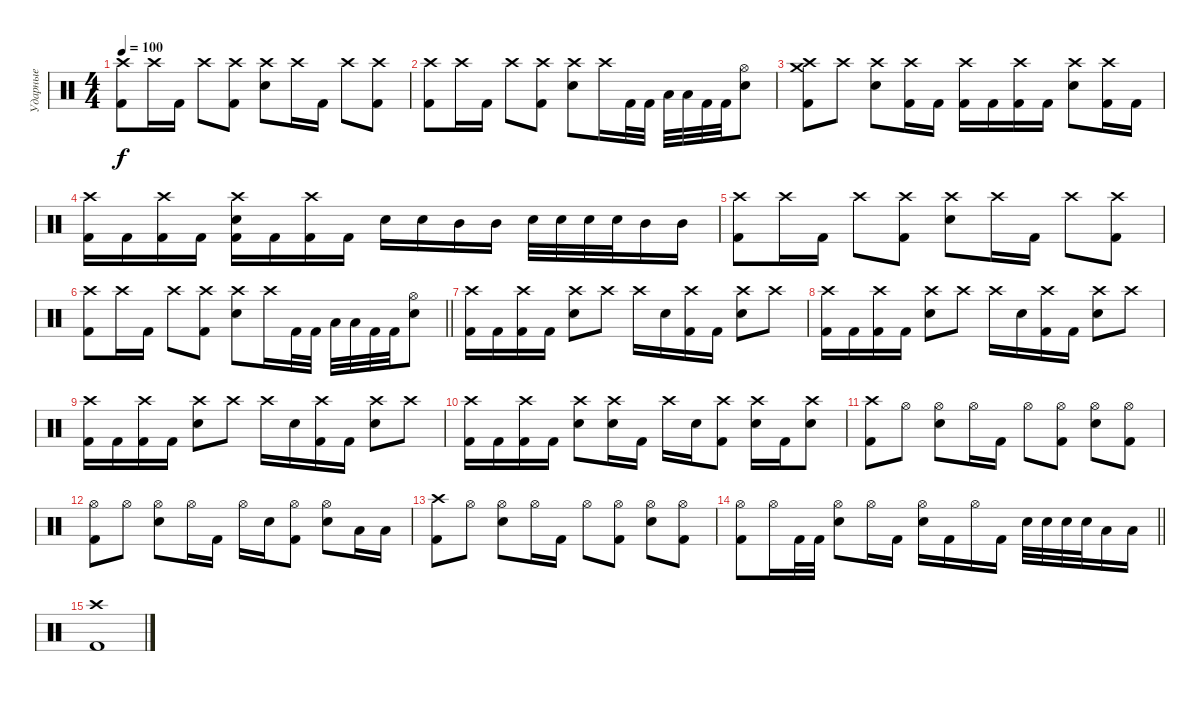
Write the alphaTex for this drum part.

\track ("Ударные" "Ударные") {instrument percussion}
\staff {score}
\articulation defaults
\ts (4 4)
\tempo 100
\clef neutral
\ks c
("Crash high (hit)" "Kick (hit) 2").8{dy f} "Crash high (hit)".16 "Kick (hit) 2".16 "Crash high (hit)".8 ("Crash high (hit)" "Kick (hit) 2").8 ("Crash high (hit)" "Snare (hit) 2").8 "Crash high (hit)".16 "Kick (hit) 2".16 "Crash high (hit)".8 ("Kick (hit) 2" "Crash high (hit)").8 |
("Crash high (hit)" "Kick (hit) 2").8 "Crash high (hit)".16 "Kick (hit) 2".16 "Crash high (hit)".8 ("Crash high (hit)" "Kick (hit) 2").8 ("Crash high (hit)" "Snare (hit) 2").8 "Crash high (hit)".16 "Kick (hit) 2".32 "Kick (hit) 2".32 "Low Tom (hit)".32 "Low Floor Tom (hit)".32 "Kick (hit) 2".32 "Kick (hit) 2".32 ("Hi-Hat (open)" "Snare (hit) 2").8 |
("Kick (hit) 2" "Crash high (hit)" "Crash medium (hit)").8 "Crash high (hit)".8 ("Crash high (hit)" "Snare (hit) 2").8 ("Crash high (hit)" "Kick (hit) 2").16 "Kick (hit) 2".16 ("Kick (hit) 2" "Crash high (hit)").16 "Kick (hit) 2".16 ("Kick (hit) 2" "Crash high (hit)").16 "Kick (hit) 2".16 ("Snare (hit) 2" "Crash high (hit)").8 ("Crash high (hit)" "Kick (hit) 2").16 "Kick (hit) 2".16 |
("Kick (hit) 2" "Crash high (hit)").16 "Kick (hit) 2".16 ("Kick (hit) 2" "Crash high (hit)").16 "Kick (hit) 2".16 ("Crash high (hit)" "Snare (hit) 2" "Kick (hit) 2").16 "Kick (hit) 2".16 ("Kick (hit) 2" "Crash high (hit)").16 "Kick (hit) 2".16 "Snare (hit) 2".16 "Snare (hit) 2".16 "Mid Tom (hit)".16 "Mid Tom (hit)".16 "Snare (hit) 2".32 "Snare (hit) 2".32 "Snare (hit) 2".32 "Snare (hit) 2".32 "Mid Tom (hit)".16 "Mid Tom (hit)".16 |
("Crash high (hit)" "Kick (hit) 2").8 "Crash high (hit)".16 "Kick (hit) 2".16 "Crash high (hit)".8 ("Crash high (hit)" "Kick (hit) 2").8 ("Crash high (hit)" "Snare (hit) 2").8 "Crash high (hit)".16 "Kick (hit) 2".16 "Crash high (hit)".8 ("Kick (hit) 2" "Crash high (hit)").8 |
\barLineRight lightlight
("Crash high (hit)" "Kick (hit) 2").8 "Crash high (hit)".16 "Kick (hit) 2".16 "Crash high (hit)".8 ("Crash high (hit)" "Kick (hit) 2").8 ("Crash high (hit)" "Snare (hit) 2").8 "Crash high (hit)".16 "Kick (hit) 2".32 "Kick (hit) 2".32 "Low Tom (hit)".32 "Low Floor Tom (hit)".32 "Kick (hit) 2".32 "Kick (hit) 2".32 ("Hi-Hat (open)" "Snare (hit) 2").8 |
("Crash high (hit)" "Kick (hit) 2").16 "Kick (hit) 2".16 ("Crash high (hit)" "Kick (hit) 2").16 "Kick (hit) 2".16 ("Crash high (hit)" "Snare (hit) 2").8 "Crash high (hit)".8 "Crash high (hit)".16 "Snare (hit) 2".16 ("Crash high (hit)" "Kick (hit) 2").16 "Kick (hit) 2".16 ("Crash high (hit)" "Snare (hit) 2").8 "Crash high (hit)".8 |
("Crash high (hit)" "Kick (hit) 2").16 "Kick (hit) 2".16 ("Crash high (hit)" "Kick (hit) 2").16 "Kick (hit) 2".16 ("Crash high (hit)" "Snare (hit) 2").8 "Crash high (hit)".8 "Crash high (hit)".16 "Snare (hit) 2".16 ("Crash high (hit)" "Kick (hit) 2").16 "Kick (hit) 2".16 ("Crash high (hit)" "Snare (hit) 2").8 "Crash high (hit)".8 |
("Crash high (hit)" "Kick (hit) 2").16 "Kick (hit) 2".16 ("Crash high (hit)" "Kick (hit) 2").16 "Kick (hit) 2".16 ("Crash high (hit)" "Snare (hit) 2").8 "Crash high (hit)".8 "Crash high (hit)".16 "Snare (hit) 2".16 ("Crash high (hit)" "Kick (hit) 2").16 "Kick (hit) 2".16 ("Crash high (hit)" "Snare (hit) 2").8 "Crash high (hit)".8 |
("Crash high (hit)" "Kick (hit) 2").16 "Kick (hit) 2".16 ("Crash high (hit)" "Kick (hit) 2").16 "Kick (hit) 2".16 ("Crash high (hit)" "Snare (hit) 2").8 ("Snare (hit) 2" "Crash high (hit)").16 "Kick (hit) 2".16 "Crash high (hit)".16 "Snare (hit) 2".16 ("Crash high (hit)" "Kick (hit) 2").8 ("Crash high (hit)" "Snare (hit) 2").16 "Kick (hit) 2".16 ("Crash high (hit)" "Snare (hit) 2").8 |
("Crash high (hit)" "Kick (hit) 2").8 "Hi-Hat (open)".8 ("Hi-Hat (open)" "Snare (hit) 2").8 "Hi-Hat (open)".16 "Kick (hit) 2".16 "Hi-Hat (open)".8 ("Hi-Hat (open)" "Kick (hit) 2").8 ("Hi-Hat (open)" "Snare (hit) 2").8 ("Kick (hit) 2" "Hi-Hat (open)").8 |
("Hi-Hat (open)" "Kick (hit) 2").8 "Hi-Hat (open)".8 ("Hi-Hat (open)" "Snare (hit) 2").8 "Hi-Hat (open)".16 "Kick (hit) 2".16 "Hi-Hat (open)".16 "Snare (hit) 2".16 ("Hi-Hat (open)" "Kick (hit) 2").8 ("Hi-Hat (open)" "Snare (hit) 2").8 "Low Tom (hit)".16 "Low Floor Tom (hit)".16 |
("Crash high (hit)" "Kick (hit) 2").8 "Hi-Hat (open)".8 ("Hi-Hat (open)" "Snare (hit) 2").8 "Hi-Hat (open)".16 "Kick (hit) 2".16 "Hi-Hat (open)".8 ("Hi-Hat (open)" "Kick (hit) 2").8 ("Hi-Hat (open)" "Snare (hit) 2").8 ("Kick (hit) 2" "Hi-Hat (open)").8 |
\barLineRight lightlight
("Hi-Hat (open)" "Kick (hit) 2").8 "Hi-Hat (open)".16 "Kick (hit) 2".32 "Kick (hit) 2".32 ("Hi-Hat (open)" "Snare (hit) 2").8 "Hi-Hat (open)".16 "Kick (hit) 2".16 ("Hi-Hat (open)" "Snare (hit) 2").16 "Kick (hit) 2".16 "Hi-Hat (open)".16 "Kick (hit) 2".16 "Snare (hit) 2".32 "Snare (hit) 2".32 "Snare (hit) 2".32 "Snare (hit) 2".32 "Low Tom (hit)".16 "Low Floor Tom (hit)".16 |
("Crash high (hit)" "Kick (hit) 2").1
